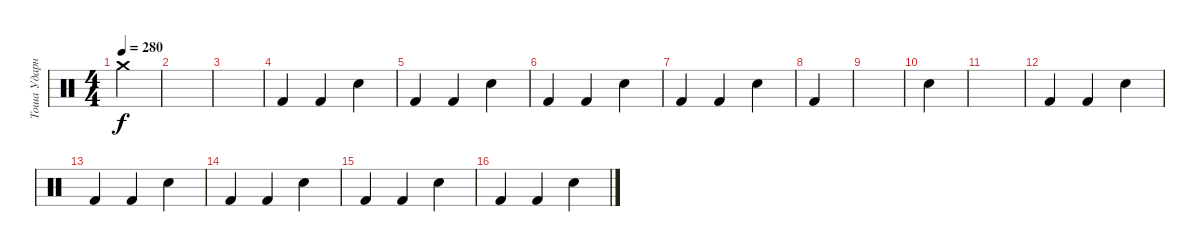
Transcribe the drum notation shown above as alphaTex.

\track ("Тоша Ударные" "Тоша Ударн") {instrument percussion}
\staff {score}
\articulation defaults
\ts (4 4)
\tempo 280
\clef neutral
\ks c "Crash medium (hit)".4{dy f}
|
|
|
"Kick (hit) 2".4 "Kick (hit) 2".4 "Electric Snare (hit)".4 |
"Kick (hit) 2".4 "Kick (hit) 2".4 "Electric Snare (hit)".4 |
"Kick (hit) 2".4 "Kick (hit) 2".4 "Electric Snare (hit)".4 |
"Kick (hit) 2".4 "Kick (hit) 2".4 "Electric Snare (hit)".4 |
"Kick (hit) 2".4 |
|
"Electric Snare (hit)".4 |
|
"Kick (hit) 2".4 "Kick (hit) 2".4 "Electric Snare (hit)".4 |
"Kick (hit) 2".4 "Kick (hit) 2".4 "Electric Snare (hit)".4 |
"Kick (hit) 2".4 "Kick (hit) 2".4 "Electric Snare (hit)".4 |
"Kick (hit) 2".4 "Kick (hit) 2".4 "Electric Snare (hit)".4 |
"Kick (hit) 2".4 "Kick (hit) 2".4 "Electric Snare (hit)".4
